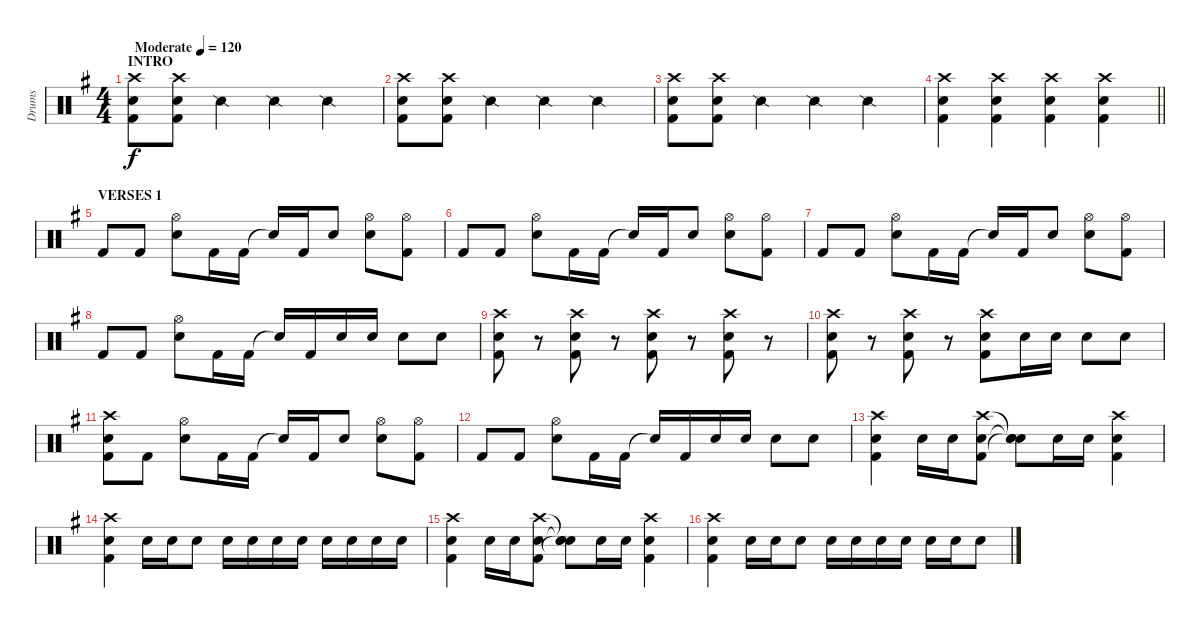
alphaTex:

\track ("Drums" "Drums") {instrument percussion}
\staff {score}
\articulation defaults
\ts (4 4)
\section ("" "INTRO")
\tempo (120 "Moderate")
\clef neutral
\ks eminor
("Crash high (hit)" "Electric Snare (hit)" "Kick (hit) 2").8{dy f} ("Crash high (hit)" "Electric Snare (hit)" "Kick (hit) 2").8 "Snare (side stick) 2".4 "Snare (side stick) 2".4 "Snare (side stick) 2".4 |
("Crash high (hit)" "Electric Snare (hit)" "Kick (hit) 2").8 ("Crash high (hit)" "Electric Snare (hit)" "Kick (hit) 2").8 "Snare (side stick) 2".4 "Snare (side stick) 2".4 "Snare (side stick) 2".4 |
("Crash high (hit)" "Electric Snare (hit)" "Kick (hit) 2").8 ("Crash high (hit)" "Electric Snare (hit)" "Kick (hit) 2").8 "Snare (side stick) 2".4 "Snare (side stick) 2".4 "Snare (side stick) 2".4 |
\barLineRight lightlight
("Crash high (hit)" "Electric Snare (hit)" "Kick (hit) 2").4 ("Crash high (hit)" "Electric Snare (hit)" "Kick (hit) 2").4 ("Crash high (hit)" "Electric Snare (hit)" "Kick (hit) 2").4 ("Crash high (hit)" "Electric Snare (hit)" "Kick (hit) 2").4 |
\section ("" "VERSES 1")
"Kick (hit) 2".8 "Kick (hit) 2".8 ("Hi-Hat (open)" "Electric Snare (hit)").8 "Kick (hit) 2".16 "Kick (hit) 2".16 "Snare (hit)"{t}.16 "Kick (hit) 2".16 "Electric Snare (hit)".8 ("Hi-Hat (open)" "Electric Snare (hit)").8 ("Hi-Hat (open)" "Kick (hit) 2").8 |
"Kick (hit) 2".8 "Kick (hit) 2".8 ("Hi-Hat (open)" "Electric Snare (hit)").8 "Kick (hit) 2".16 "Kick (hit) 2".16 "Snare (hit)"{t}.16 "Kick (hit) 2".16 "Electric Snare (hit)".8 ("Hi-Hat (open)" "Electric Snare (hit)").8 ("Hi-Hat (open)" "Kick (hit) 2").8 |
"Kick (hit) 2".8 "Kick (hit) 2".8 ("Hi-Hat (open)" "Electric Snare (hit)").8 "Kick (hit) 2".16 "Kick (hit) 2".16 "Snare (hit)"{t}.16 "Kick (hit) 2".16 "Electric Snare (hit)".8 ("Hi-Hat (open)" "Electric Snare (hit)").8 ("Hi-Hat (open)" "Kick (hit) 2").8 |
"Kick (hit) 2".8 "Kick (hit) 2".8 ("Hi-Hat (open)" "Electric Snare (hit)").8 "Kick (hit) 2".16 "Kick (hit) 2".16 "Snare (hit)"{t}.16 "Kick (hit) 2".16 "Electric Snare (hit)".16 "Electric Snare (hit)".16 "Electric Snare (hit)".8 "Electric Snare (hit)".8 |
("Crash high (hit)" "Electric Snare (hit)" "Kick (hit) 2").8 r.8 ("Crash high (hit)" "Electric Snare (hit)" "Kick (hit) 2").8 r.8 ("Crash high (hit)" "Electric Snare (hit)" "Kick (hit) 2").8 r.8 ("Crash high (hit)" "Electric Snare (hit)" "Kick (hit) 2").8 r.8 |
("Crash high (hit)" "Electric Snare (hit)" "Kick (hit) 2").8 r.8 ("Crash high (hit)" "Electric Snare (hit)" "Kick (hit) 2").8 r.8 ("Crash high (hit)" "Electric Snare (hit)" "Kick (hit) 2").8 "Electric Snare (hit)".16 "Electric Snare (hit)".16 "Electric Snare (hit)".8 "Electric Snare (hit)".8 |
("Crash high (hit)" "Electric Snare (hit)" "Kick (hit) 2").8 "Kick (hit) 2".8 ("Hi-Hat (open)" "Electric Snare (hit)").8 "Kick (hit) 2".16 "Kick (hit) 2".16 "Snare (hit)"{t}.16 "Kick (hit) 2".16 "Electric Snare (hit)".8 ("Hi-Hat (open)" "Electric Snare (hit)").8 ("Hi-Hat (open)" "Kick (hit) 2").8 |
"Kick (hit) 2".8 "Kick (hit) 2".8 ("Hi-Hat (open)" "Electric Snare (hit)").8 "Kick (hit) 2".16 "Kick (hit) 2".16 "Snare (hit)"{t}.16 "Kick (hit) 2".16 "Electric Snare (hit)".16 "Electric Snare (hit)".16 "Electric Snare (hit)".8 "Electric Snare (hit)".8 |
("Crash high (hit)" "Electric Snare (hit)" "Kick (hit) 2").4 "Electric Snare (hit)".16 "Electric Snare (hit)".16 ("Crash high (hit)" "Electric Snare (hit)" "Kick (hit) 2").8 ("Snare (hit)"{t} "Snare (hit)"{t} "Snare (hit)"{t}).8 "Electric Snare (hit)".16 "Electric Snare (hit)".16 ("Crash high (hit)" "Electric Snare (hit)" "Kick (hit) 2").4 |
("Crash high (hit)" "Electric Snare (hit)" "Kick (hit) 2").4 "Electric Snare (hit)".16 "Electric Snare (hit)".16 "Electric Snare (hit)".8 "Electric Snare (hit)".16 "Electric Snare (hit)".16 "Electric Snare (hit)".16 "Electric Snare (hit)".16 "Electric Snare (hit)".16 "Electric Snare (hit)".16 "Electric Snare (hit)".16 "Electric Snare (hit)".16 |
("Crash high (hit)" "Electric Snare (hit)" "Kick (hit) 2").4 "Electric Snare (hit)".16 "Electric Snare (hit)".16 ("Crash high (hit)" "Electric Snare (hit)" "Kick (hit) 2").8 ("Snare (hit)"{t} "Snare (hit)"{t} "Snare (hit)"{t}).8 "Electric Snare (hit)".16 "Electric Snare (hit)".16 ("Crash high (hit)" "Electric Snare (hit)" "Kick (hit) 2").4 |
("Crash high (hit)" "Electric Snare (hit)" "Kick (hit) 2").4 "Electric Snare (hit)".16 "Electric Snare (hit)".16 "Electric Snare (hit)".8 "Electric Snare (hit)".16 "Electric Snare (hit)".16 "Electric Snare (hit)".16 "Electric Snare (hit)".16 "Electric Snare (hit)".16 "Electric Snare (hit)".16 "Electric Snare (hit)".8
